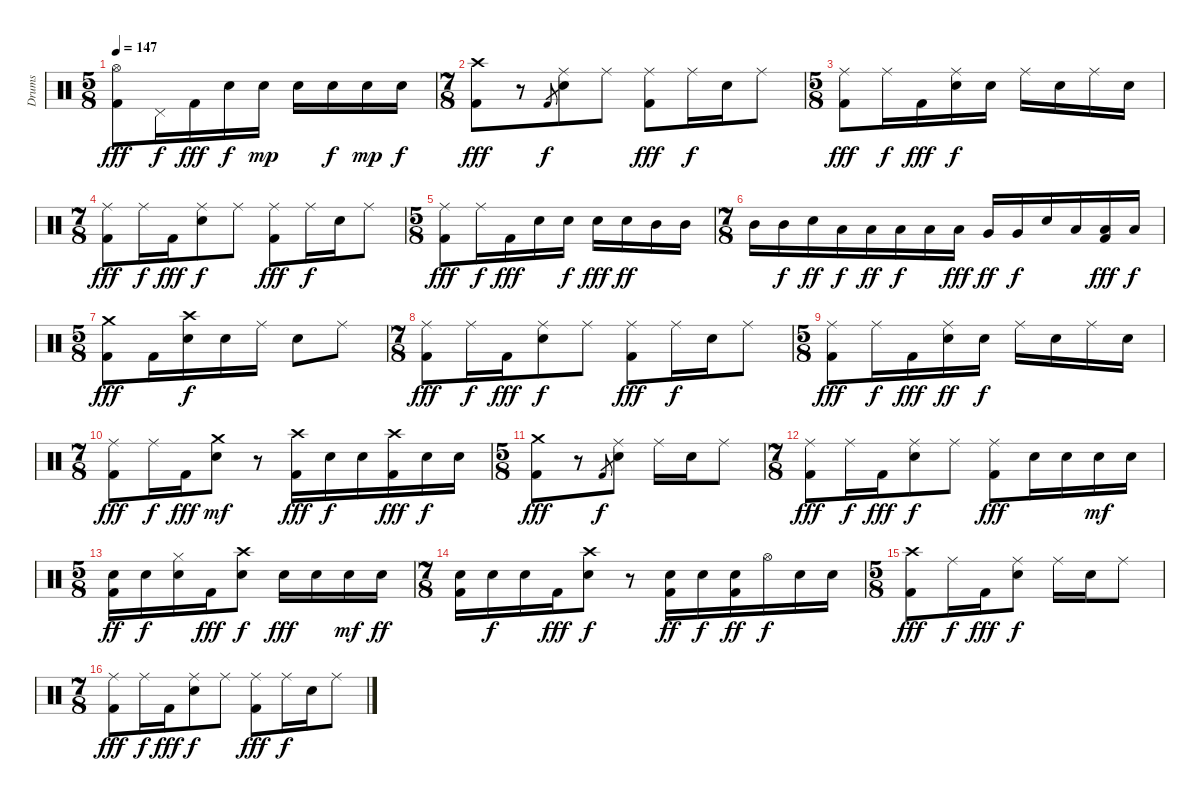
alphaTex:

\track ("Drums" "Drums") {instrument percussion}
\staff {score}
\articulation defaults
\ts (5 8)
\tempo 147
\clef neutral
\ks c
("Kick (hit) 2" "Hi-Hat (open)").8{dy fff} "Pedal Hi-Hat (hit)".16{dy f} "Kick (hit) 2".16{dy fff} "Snare (hit) 2".16{dy f} "Snare (hit) 2".16{dy mp} "Snare (hit) 2".16 "Snare (hit) 2".16{dy f} "Snare (hit) 2".16{dy mp} "Snare (hit) 2".16{dy f} |
\ts (7 8)
("Kick (hit) 2" "Crash high (hit)").8{dy fff} r.8 "Kick (hit) 2".8{gr dy f} ("Snare (hit) 2" "Ride (middle)").8 "Ride (middle)".8 ("Kick (hit) 2" "Ride (middle)").8{dy fff} "Ride (middle)".16{dy f} "Snare (hit) 2".16 "Ride (middle)".8 |
\ts (5 8)
("Kick (hit) 2" "Ride (middle)").8{dy fff} "Ride (middle)".16{dy f} "Kick (hit) 2".16{dy fff} ("Snare (hit) 2" "Ride (middle)").16{dy f} "Snare (hit) 2".16 "Ride (middle)".16 "Snare (hit) 2".16 "Ride (middle)".16 "Snare (hit) 2".16 |
\ts (7 8)
("Kick (hit) 2" "Ride (middle)").8{dy fff} "Ride (middle)".16{dy f} "Kick (hit) 2".16{dy fff} ("Snare (hit) 2" "Ride (middle)").8{dy f} "Ride (middle)".8 ("Kick (hit) 2" "Ride (middle)").8{dy fff} "Ride (middle)".16{dy f} "Snare (hit) 2".16 "Ride (middle)".8 |
\ts (5 8)
("Kick (hit) 2" "Ride (middle)").8{dy fff} "Ride (middle)".16{dy f} "Kick (hit) 2".16{dy fff} "Snare (hit) 2".16 "Snare (hit) 2".16{dy f} "Snare (hit) 2".16{dy fff} "Snare (hit) 2".16{dy ff} "Mid Tom (hit)".16 "Mid Tom (hit)".16 |
\ts (7 8)
"Mid Tom (hit)".16 "Mid Tom (hit)".16{dy f} "Snare (hit) 2".16{dy ff} "Low Tom (hit)".16{dy f} "Low Tom (hit)".16{dy ff} "Low Tom (hit)".16{dy f} "Low Tom (hit)".16 "Low Floor Tom (hit)".16{dy fff} "Very Low Tom (hit)".16{dy ff} "Very Low Tom (hit)".16{dy f} "Snare (hit) 2".16 "Low Floor Tom (hit)".16 ("Kick (hit) 2" "Low Floor Tom (hit)").16{dy fff} "Low Floor Tom (hit)".16{dy f} |
\ts (5 8)
("Kick (hit) 2" "Crash medium (hit)").8{dy fff} "Kick (hit) 2".16 ("Snare (hit) 2" "Crash high (hit)").16{dy f} "Snare (hit) 2".16 "Ride (middle)".16 "Snare (hit) 2".8 "Ride (middle)".8 |
\ts (7 8)
("Kick (hit) 2" "Ride (middle)").8{dy fff} "Ride (middle)".16{dy f} "Kick (hit) 2".16{dy fff} ("Snare (hit) 2" "Ride (middle)").8{dy f} "Ride (middle)".8 ("Kick (hit) 2" "Ride (middle)").8{dy fff} "Ride (middle)".16{dy f} "Snare (hit) 2".16 "Ride (middle)".8 |
\ts (5 8)
("Kick (hit) 2" "Ride (middle)").8{dy fff} "Ride (middle)".16{dy f} "Kick (hit) 2".16{dy fff} ("Snare (hit) 2" "Ride (middle)").16{dy ff} "Snare (hit) 2".16{dy f} "Ride (middle)".16 "Snare (hit) 2".16 "Ride (middle)".16 "Snare (hit) 2".16 |
\ts (7 8)
("Kick (hit) 2" "Ride (middle)").8{dy fff} "Ride (middle)".16{dy f} "Kick (hit) 2".16{dy fff} ("Snare (hit) 2" "Crash medium (hit)").8{dy mf} r.8 ("Kick (hit) 2" "Crash high (hit)").16{dy fff} "Snare (hit) 2".16{dy f} "Snare (hit) 2".16 ("Kick (hit) 2" "Crash high (hit)").16{dy fff} "Snare (hit) 2".16{dy f} "Snare (hit) 2".16 |
\ts (5 8)
("Kick (hit) 2" "Crash medium (hit)").8{dy fff} r.8 "Kick (hit) 2".8{gr dy f} ("Snare (hit) 2" "Ride (middle)").8 "Ride (middle)".16 "Snare (hit) 2".16 "Ride (middle)".8 |
\ts (7 8)
("Kick (hit) 2" "Ride (middle)").8{dy fff} "Ride (middle)".16{dy f} "Kick (hit) 2".16{dy fff} ("Snare (hit) 2" "Ride (middle)").8{dy f} "Ride (middle)".8 ("Kick (hit) 2" "Ride (middle)").8{dy fff} "Snare (hit) 2".16 "Snare (hit) 2".16 "Snare (hit) 2".16{dy mf} "Snare (hit) 2".16 |
\ts (5 8)
("Kick (hit) 2" "Snare (hit) 2").16{dy ff} "Snare (hit) 2".16{dy f} ("Snare (hit) 2" "Hi-Hat (closed)").16 "Kick (hit) 2".16{dy fff} ("Snare (hit) 2" "Crash high (hit)").8{dy f} "Snare (hit) 2".16{dy fff} "Snare (hit) 2".16 "Snare (hit) 2".16{dy mf} "Snare (hit) 2".16{dy ff} |
\ts (7 8)
("Kick (hit) 2" "Snare (hit) 2").16 "Snare (hit) 2".16{dy f} "Snare (hit) 2".16 "Kick (hit) 2".16{dy fff} ("Snare (hit) 2" "Crash high (hit)").8{dy f} r.8 ("Kick (hit) 2" "Snare (hit) 2").16{dy ff} "Snare (hit) 2".16{dy f} ("Kick (hit) 2" "Snare (hit) 2").16{dy ff} "Hi-Hat (open)".16{dy f} "Snare (hit) 2".16 "Snare (hit) 2".16 |
\ts (5 8)
("Kick (hit) 2" "Crash high (hit)").8{dy fff} "Ride (middle)".16{dy f} "Kick (hit) 2".16{dy fff} ("Snare (hit) 2" "Ride (middle)").8{dy f} "Ride (middle)".16 "Snare (hit) 2".16 "Ride (middle)".8 |
\ts (7 8)
("Kick (hit) 2" "Ride (middle)").8{dy fff} "Ride (middle)".16{dy f} "Kick (hit) 2".16{dy fff} ("Snare (hit) 2" "Ride (middle)").8{dy f} "Ride (middle)".8 ("Kick (hit) 2" "Ride (middle)").8{dy fff} "Ride (middle)".16{dy f} "Snare (hit) 2".16 "Ride (middle)".8
